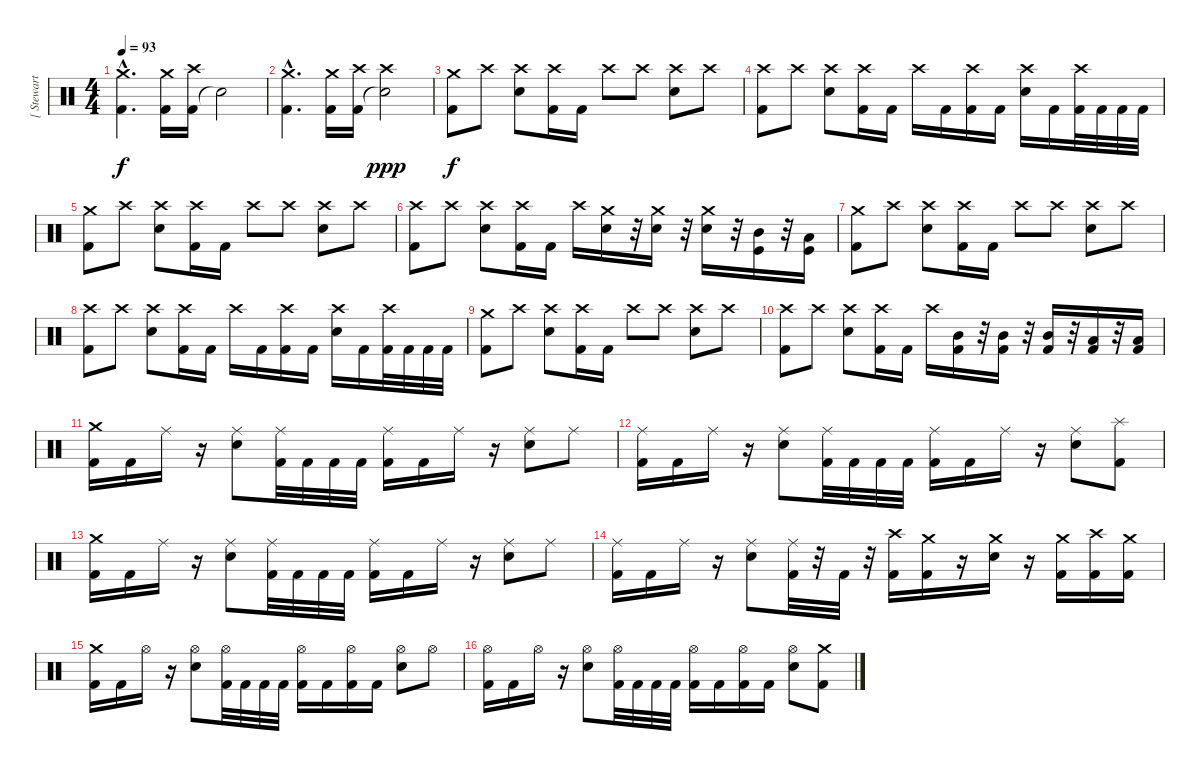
\track ("[ Stewart ]" "[ Stewart ") {instrument percussion}
\staff {score}
\articulation defaults
\ts (4 4)
\tempo 93
\clef neutral
\ks c
("Kick (hit) 2"{hac} "Crash medium (hit)"{hac}).4{d dy f} ("Kick (hit) 2" "Crash medium (hit)").16 ("Kick (hit) 2" "Crash high (hit)").16 "Snare (hit)"{t}.2 |
("Kick (hit) 2"{hac} "Crash medium (hit)"{hac}).4{d} ("Kick (hit) 2" "Crash medium (hit)").16 ("Kick (hit) 2" "Crash high (hit)").16 ("Snare (hit)"{t} "Crash high (hit)").2{dy ppp} |
("Kick (hit) 2" "Crash medium (hit)").8{dy f} "Crash high (hit)".8 ("Electric Snare (hit)" "Crash high (hit)").8 ("Kick (hit) 2" "Crash high (hit)").16 "Kick (hit) 2".16 "Crash high (hit)".8 "Crash high (hit)".8 ("Electric Snare (hit)" "Crash high (hit)").8 "Crash high (hit)".8 |
("Kick (hit) 2" "Crash high (hit)").8 "Crash high (hit)".8 ("Electric Snare (hit)" "Crash high (hit)").8 ("Kick (hit) 2" "Crash high (hit)").16 "Kick (hit) 2".16 "Crash high (hit)".16 "Kick (hit) 2".16 ("Kick (hit) 2" "Crash high (hit)").16 "Kick (hit) 2".16 ("Electric Snare (hit)" "Crash high (hit)").16 "Kick (hit) 2".16 ("Kick (hit) 2" "Crash high (hit)").32 "Kick (hit) 2".32 "Kick (hit) 2".32 "Kick (hit) 2".32 |
("Kick (hit) 2" "Crash medium (hit)").8 "Crash high (hit)".8 ("Electric Snare (hit)" "Crash high (hit)").8 ("Kick (hit) 2" "Crash high (hit)").16 "Kick (hit) 2".16 "Crash high (hit)".8 "Crash high (hit)".8 ("Electric Snare (hit)" "Crash high (hit)").8 "Crash high (hit)".8 |
("Kick (hit) 2" "Crash high (hit)").8 "Crash high (hit)".8 ("Electric Snare (hit)" "Crash high (hit)").8 ("Kick (hit) 2" "Crash high (hit)").16 "Kick (hit) 2".16 "Crash high (hit)".16 ("Electric Snare (hit)" "Crash medium (hit)").16 r.32 ("Electric Snare (hit)" "Crash medium (hit)").16 r.32 ("Electric Snare (hit)" "Crash medium (hit)").16 r.32 ("Mid Tom (hit)" "Kick (hit)").16 r.32 ("Low Tom (hit)" "Kick (hit)").16 |
("Kick (hit) 2" "Crash medium (hit)").8 "Crash high (hit)".8 ("Electric Snare (hit)" "Crash high (hit)").8 ("Kick (hit) 2" "Crash high (hit)").16 "Kick (hit) 2".16 "Crash high (hit)".8 "Crash high (hit)".8 ("Electric Snare (hit)" "Crash high (hit)").8 "Crash high (hit)".8 |
("Kick (hit) 2" "Crash high (hit)").8 "Crash high (hit)".8 ("Electric Snare (hit)" "Crash high (hit)").8 ("Kick (hit) 2" "Crash high (hit)").16 "Kick (hit) 2".16 "Crash high (hit)".16 "Kick (hit) 2".16 ("Kick (hit) 2" "Crash high (hit)").16 "Kick (hit) 2".16 ("Electric Snare (hit)" "Crash high (hit)").16 "Kick (hit) 2".16 ("Kick (hit) 2" "Crash high (hit)").32 "Kick (hit) 2".32 "Kick (hit) 2".32 "Kick (hit) 2".32 |
("Kick (hit) 2" "Crash medium (hit)").8 "Crash high (hit)".8 ("Electric Snare (hit)" "Crash high (hit)").8 ("Kick (hit) 2" "Crash high (hit)").16 "Kick (hit) 2".16 "Crash high (hit)".8 "Crash high (hit)".8 ("Electric Snare (hit)" "Crash high (hit)").8 "Crash high (hit)".8 |
("Kick (hit) 2" "Crash high (hit)").8 "Crash high (hit)".8 ("Electric Snare (hit)" "Crash high (hit)").8 ("Kick (hit) 2" "Crash high (hit)").16 "Kick (hit) 2".16 "Crash high (hit)".16 ("Mid Tom (hit)" "Kick (hit) 2").16 r.32 ("Mid Tom (hit)" "Kick (hit) 2").16 r.32 ("Mid Tom (hit)" "Kick (hit) 2").16 r.32 ("Low Tom (hit)" "Kick (hit) 2").16 r.32 ("Low Tom (hit)" "Kick (hit) 2").16 |
("Kick (hit) 2" "Crash medium (hit)").16 "Kick (hit) 2".16 "Ride (middle)".16 r.16 ("Electric Snare (hit)" "Ride (middle)").8 ("Kick (hit) 2" "Ride (middle)").32 "Kick (hit) 2".32 "Kick (hit) 2".32 "Kick (hit) 2".32 ("Kick (hit) 2" "Ride (middle)").16 "Kick (hit) 2".16 "Ride (middle)".16 r.16 ("Electric Snare (hit)" "Ride (middle)").8 "Ride (middle)".8 |
("Kick (hit) 2" "Ride (middle)").16 "Kick (hit) 2".16 "Ride (middle)".16 r.16 ("Electric Snare (hit)" "Ride (middle)").8 ("Kick (hit) 2" "Ride (middle)").32 "Kick (hit) 2".32 "Kick (hit) 2".32 "Kick (hit) 2".32 ("Kick (hit) 2" "Ride (middle)").16 "Kick (hit) 2".16 "Ride (middle)".16 r.16 ("Electric Snare (hit)" "Ride (middle)").8 ("Kick (hit) 2" "Splash (hit)").8 |
("Kick (hit) 2" "Crash medium (hit)").16 "Kick (hit) 2".16 "Ride (middle)".16 r.16 ("Electric Snare (hit)" "Ride (middle)").8 ("Kick (hit) 2" "Ride (middle)").32 "Kick (hit) 2".32 "Kick (hit) 2".32 "Kick (hit) 2".32 ("Kick (hit) 2" "Ride (middle)").16 "Kick (hit) 2".16 "Ride (middle)".16 r.16 ("Electric Snare (hit)" "Ride (middle)").8 "Ride (middle)".8 |
("Kick (hit) 2" "Ride (middle)").16 "Kick (hit) 2".16 "Ride (middle)".16 r.16 ("Electric Snare (hit)" "Ride (middle)").8 ("Kick (hit) 2" "Ride (middle)").32 r.32 "Kick (hit) 2".32 r.32 ("Kick (hit) 2" "Crash high (hit)").16 ("Kick (hit) 2" "Crash medium (hit)").16 r.16 ("Electric Snare (hit)" "Crash medium (hit)").16 r.16 ("Kick (hit) 2" "Crash medium (hit)").16 ("Kick (hit) 2" "Crash high (hit)").16 ("Kick (hit) 2" "Crash medium (hit)").16 |
("Kick (hit) 2" "Crash medium (hit)").16 "Kick (hit) 2".16 "Hi-Hat (open)".16 r.16 ("Electric Snare (hit)" "Hi-Hat (open)").8 ("Kick (hit) 2" "Hi-Hat (open)").32 "Kick (hit) 2".32 "Kick (hit) 2".32 "Kick (hit) 2".32 ("Kick (hit) 2" "Hi-Hat (open)").16 "Kick (hit) 2".16 ("Kick (hit) 2" "Hi-Hat (open)").16 "Kick (hit) 2".16 ("Electric Snare (hit)" "Hi-Hat (open)").8 "Hi-Hat (open)".8 |
("Kick (hit) 2" "Hi-Hat (open)").16 "Kick (hit) 2".16 "Hi-Hat (open)".16 r.16 ("Electric Snare (hit)" "Hi-Hat (open)").8 ("Kick (hit) 2" "Hi-Hat (open)").32 "Kick (hit) 2".32 "Kick (hit) 2".32 "Kick (hit) 2".32 ("Kick (hit) 2" "Hi-Hat (open)").16 "Kick (hit) 2".16 ("Kick (hit) 2" "Hi-Hat (open)").16 "Kick (hit) 2".16 ("Electric Snare (hit)" "Hi-Hat (open)").8 ("Kick (hit) 2" "Crash medium (hit)").8
